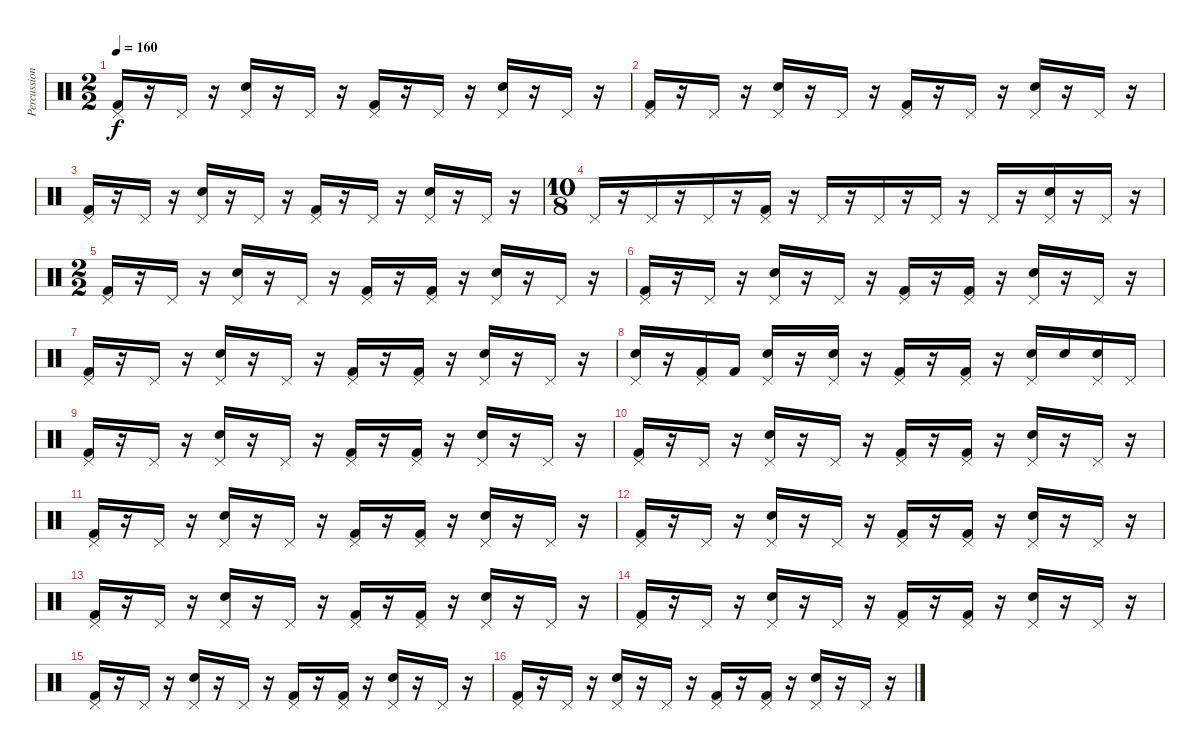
\track ("Percussion" "Percussion") {instrument percussion}
\staff {score}
\articulation defaults
\ts (2 2)
\tempo 160
\clef neutral
\ks c
("Pedal Hi-Hat (hit)" "Kick (hit) 2").16{dy f} r.16 "Pedal Hi-Hat (hit)".16 r.16 ("Pedal Hi-Hat (hit)" "Snare (hit) 2").16 r.16 "Pedal Hi-Hat (hit)".16 r.16 ("Pedal Hi-Hat (hit)" "Kick (hit) 2").16 r.16 "Pedal Hi-Hat (hit)".16 r.16 ("Pedal Hi-Hat (hit)" "Snare (hit) 2").16 r.16 "Pedal Hi-Hat (hit)".16 r.16 |
("Pedal Hi-Hat (hit)" "Kick (hit) 2").16 r.16 "Pedal Hi-Hat (hit)".16 r.16 ("Pedal Hi-Hat (hit)" "Snare (hit) 2").16 r.16 "Pedal Hi-Hat (hit)".16 r.16 ("Pedal Hi-Hat (hit)" "Kick (hit) 2").16 r.16 "Pedal Hi-Hat (hit)".16 r.16 ("Pedal Hi-Hat (hit)" "Snare (hit) 2").16 r.16 "Pedal Hi-Hat (hit)".16 r.16 |
("Pedal Hi-Hat (hit)" "Kick (hit) 2").16 r.16 "Pedal Hi-Hat (hit)".16 r.16 ("Pedal Hi-Hat (hit)" "Snare (hit) 2").16 r.16 "Pedal Hi-Hat (hit)".16 r.16 ("Pedal Hi-Hat (hit)" "Kick (hit) 2").16 r.16 "Pedal Hi-Hat (hit)".16 r.16 ("Pedal Hi-Hat (hit)" "Snare (hit) 2").16 r.16 "Pedal Hi-Hat (hit)".16 r.16 |
\ts (10 8)
"Pedal Hi-Hat (hit)".16 r.16 "Pedal Hi-Hat (hit)".16 r.16 "Pedal Hi-Hat (hit)".16 r.16 ("Pedal Hi-Hat (hit)" "Kick (hit) 2").16 r.16 "Pedal Hi-Hat (hit)".16 r.16 "Pedal Hi-Hat (hit)".16 r.16 "Pedal Hi-Hat (hit)".16 r.16 "Pedal Hi-Hat (hit)".16 r.16 ("Pedal Hi-Hat (hit)" "Snare (hit) 2").16 r.16 "Pedal Hi-Hat (hit)".16 r.16 |
\ts (2 2)
("Pedal Hi-Hat (hit)" "Kick (hit) 2").16 r.16 "Pedal Hi-Hat (hit)".16 r.16 ("Pedal Hi-Hat (hit)" "Snare (hit) 2").16 r.16 "Pedal Hi-Hat (hit)".16 r.16 ("Pedal Hi-Hat (hit)" "Kick (hit) 2").16 r.16 ("Pedal Hi-Hat (hit)" "Kick (hit) 2").16 r.16 ("Pedal Hi-Hat (hit)" "Snare (hit) 2").16 r.16 "Pedal Hi-Hat (hit)".16 r.16 |
("Pedal Hi-Hat (hit)" "Kick (hit) 2").16 r.16 "Pedal Hi-Hat (hit)".16 r.16 ("Pedal Hi-Hat (hit)" "Snare (hit) 2").16 r.16 "Pedal Hi-Hat (hit)".16 r.16 ("Pedal Hi-Hat (hit)" "Kick (hit) 2").16 r.16 ("Pedal Hi-Hat (hit)" "Kick (hit) 2").16 r.16 ("Pedal Hi-Hat (hit)" "Snare (hit) 2").16 r.16 "Pedal Hi-Hat (hit)".16 r.16 |
("Pedal Hi-Hat (hit)" "Kick (hit) 2").16 r.16 "Pedal Hi-Hat (hit)".16 r.16 ("Pedal Hi-Hat (hit)" "Snare (hit) 2").16 r.16 "Pedal Hi-Hat (hit)".16 r.16 ("Pedal Hi-Hat (hit)" "Kick (hit) 2").16 r.16 ("Pedal Hi-Hat (hit)" "Kick (hit) 2").16 r.16 ("Pedal Hi-Hat (hit)" "Snare (hit) 2").16 r.16 "Pedal Hi-Hat (hit)".16 r.16 |
("Pedal Hi-Hat (hit)" "Snare (hit) 2").16 r.16 ("Pedal Hi-Hat (hit)" "Kick (hit) 2").16 "Kick (hit) 2".16 ("Pedal Hi-Hat (hit)" "Snare (hit) 2").16 r.16 ("Pedal Hi-Hat (hit)" "Snare (hit) 2").16 r.16 ("Pedal Hi-Hat (hit)" "Kick (hit) 2").16 r.16 ("Pedal Hi-Hat (hit)" "Kick (hit) 2").16 r.16 ("Pedal Hi-Hat (hit)" "Snare (hit) 2").16 "Snare (hit) 2".16 ("Pedal Hi-Hat (hit)" "Snare (hit) 2").16 "Pedal Hi-Hat (hit)".16 |
("Pedal Hi-Hat (hit)" "Kick (hit) 2").16 r.16 "Pedal Hi-Hat (hit)".16 r.16 ("Pedal Hi-Hat (hit)" "Snare (hit) 2").16 r.16 "Pedal Hi-Hat (hit)".16 r.16 ("Pedal Hi-Hat (hit)" "Kick (hit) 2").16 r.16 ("Pedal Hi-Hat (hit)" "Kick (hit) 2").16 r.16 ("Pedal Hi-Hat (hit)" "Snare (hit) 2").16 r.16 "Pedal Hi-Hat (hit)".16 r.16 |
("Pedal Hi-Hat (hit)" "Kick (hit) 2").16 r.16 "Pedal Hi-Hat (hit)".16 r.16 ("Pedal Hi-Hat (hit)" "Snare (hit) 2").16 r.16 "Pedal Hi-Hat (hit)".16 r.16 ("Pedal Hi-Hat (hit)" "Kick (hit) 2").16 r.16 ("Pedal Hi-Hat (hit)" "Kick (hit) 2").16 r.16 ("Pedal Hi-Hat (hit)" "Snare (hit) 2").16 r.16 "Pedal Hi-Hat (hit)".16 r.16 |
("Pedal Hi-Hat (hit)" "Kick (hit) 2").16 r.16 "Pedal Hi-Hat (hit)".16 r.16 ("Pedal Hi-Hat (hit)" "Snare (hit) 2").16 r.16 "Pedal Hi-Hat (hit)".16 r.16 ("Pedal Hi-Hat (hit)" "Kick (hit) 2").16 r.16 ("Pedal Hi-Hat (hit)" "Kick (hit) 2").16 r.16 ("Pedal Hi-Hat (hit)" "Snare (hit) 2").16 r.16 "Pedal Hi-Hat (hit)".16 r.16 |
("Pedal Hi-Hat (hit)" "Kick (hit) 2").16 r.16 "Pedal Hi-Hat (hit)".16 r.16 ("Pedal Hi-Hat (hit)" "Snare (hit) 2").16 r.16 "Pedal Hi-Hat (hit)".16 r.16 ("Pedal Hi-Hat (hit)" "Kick (hit) 2").16 r.16 ("Pedal Hi-Hat (hit)" "Kick (hit) 2").16 r.16 ("Pedal Hi-Hat (hit)" "Snare (hit) 2").16 r.16 "Pedal Hi-Hat (hit)".16 r.16 |
("Pedal Hi-Hat (hit)" "Kick (hit) 2").16 r.16 "Pedal Hi-Hat (hit)".16 r.16 ("Pedal Hi-Hat (hit)" "Snare (hit) 2").16 r.16 "Pedal Hi-Hat (hit)".16 r.16 ("Pedal Hi-Hat (hit)" "Kick (hit) 2").16 r.16 ("Pedal Hi-Hat (hit)" "Kick (hit) 2").16 r.16 ("Pedal Hi-Hat (hit)" "Snare (hit) 2").16 r.16 "Pedal Hi-Hat (hit)".16 r.16 |
("Pedal Hi-Hat (hit)" "Kick (hit) 2").16 r.16 "Pedal Hi-Hat (hit)".16 r.16 ("Pedal Hi-Hat (hit)" "Snare (hit) 2").16 r.16 "Pedal Hi-Hat (hit)".16 r.16 ("Pedal Hi-Hat (hit)" "Kick (hit) 2").16 r.16 ("Pedal Hi-Hat (hit)" "Kick (hit) 2").16 r.16 ("Pedal Hi-Hat (hit)" "Snare (hit) 2").16 r.16 "Pedal Hi-Hat (hit)".16 r.16 |
("Pedal Hi-Hat (hit)" "Kick (hit) 2").16 r.16 "Pedal Hi-Hat (hit)".16 r.16 ("Pedal Hi-Hat (hit)" "Snare (hit) 2").16 r.16 "Pedal Hi-Hat (hit)".16 r.16 ("Pedal Hi-Hat (hit)" "Kick (hit) 2").16 r.16 ("Pedal Hi-Hat (hit)" "Kick (hit) 2").16 r.16 ("Pedal Hi-Hat (hit)" "Snare (hit) 2").16 r.16 "Pedal Hi-Hat (hit)".16 r.16 |
("Pedal Hi-Hat (hit)" "Kick (hit) 2").16 r.16 "Pedal Hi-Hat (hit)".16 r.16 ("Pedal Hi-Hat (hit)" "Snare (hit) 2").16 r.16 "Pedal Hi-Hat (hit)".16 r.16 ("Pedal Hi-Hat (hit)" "Kick (hit) 2").16 r.16 ("Pedal Hi-Hat (hit)" "Kick (hit) 2").16 r.16 ("Pedal Hi-Hat (hit)" "Snare (hit) 2").16 r.16 "Pedal Hi-Hat (hit)".16 r.16
